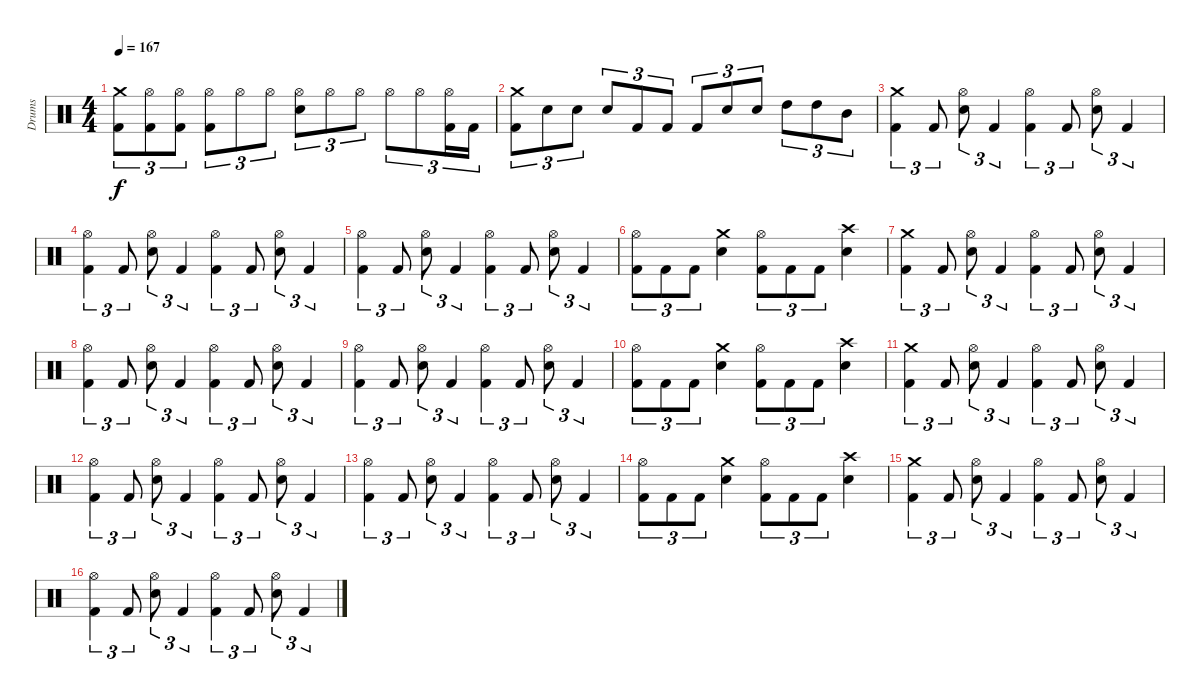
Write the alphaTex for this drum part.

\track ("Drums" "Drums") {instrument percussion}
\staff {score}
\articulation defaults
\ts (4 4)
\tempo 167
\clef neutral
\ks c
("Kick (hit) 2" "Crash medium (hit)").8{tu (3 2) dy f} ("Kick (hit) 2" "Hi-Hat (open)").8{tu (3 2)} ("Kick (hit) 2" "Hi-Hat (open)").8{tu (3 2)} ("Kick (hit) 2" "Hi-Hat (open)").8{tu (3 2)} "Hi-Hat (open)".8{tu (3 2)} "Hi-Hat (open)".8{tu (3 2)} ("Electric Snare (hit)" "Hi-Hat (open)").8{tu (3 2)} "Hi-Hat (open)".8{tu (3 2)} "Hi-Hat (open)".8{tu (3 2)} "Hi-Hat (open)".8{tu (3 2)} "Hi-Hat (open)".8{tu (3 2)} ("Kick (hit) 2" "Hi-Hat (open)").16{tu (3 2)} "Kick (hit) 2".16{tu (3 2)} |
("Kick (hit) 2" "Crash medium (hit)").8{tu (3 2)} "Electric Snare (hit)".8{tu (3 2)} "Electric Snare (hit)".8{tu (3 2)} "Electric Snare (hit)".8{tu (3 2)} "Kick (hit) 2".8{tu (3 2)} "Kick (hit) 2".8{tu (3 2)} "Kick (hit) 2".8{tu (3 2)} "Electric Snare (hit)".8{tu (3 2)} "Electric Snare (hit)".8{tu (3 2)} "High Tom (hit)".8{tu (3 2)} "High Tom (hit)".8{tu (3 2)} "Mid Tom (hit)".8{tu (3 2)} |
("Kick (hit) 2" "Crash medium (hit)").4{tu (3 2)} "Kick (hit) 2".8{tu (3 2)} ("Electric Snare (hit)" "Hi-Hat (open)").8{tu (3 2)} "Kick (hit) 2".4{tu (3 2)} ("Kick (hit) 2" "Hi-Hat (open)").4{tu (3 2)} "Kick (hit) 2".8{tu (3 2)} ("Electric Snare (hit)" "Hi-Hat (open)").8{tu (3 2)} "Kick (hit) 2".4{tu (3 2)} |
("Kick (hit) 2" "Hi-Hat (open)").4{tu (3 2)} "Kick (hit) 2".8{tu (3 2)} ("Electric Snare (hit)" "Hi-Hat (open)").8{tu (3 2)} "Kick (hit) 2".4{tu (3 2)} ("Kick (hit) 2" "Hi-Hat (open)").4{tu (3 2)} "Kick (hit) 2".8{tu (3 2)} ("Electric Snare (hit)" "Hi-Hat (open)").8{tu (3 2)} "Kick (hit) 2".4{tu (3 2)} |
("Kick (hit) 2" "Hi-Hat (open)").4{tu (3 2)} "Kick (hit) 2".8{tu (3 2)} ("Electric Snare (hit)" "Hi-Hat (open)").8{tu (3 2)} "Kick (hit) 2".4{tu (3 2)} ("Kick (hit) 2" "Hi-Hat (open)").4{tu (3 2)} "Kick (hit) 2".8{tu (3 2)} ("Electric Snare (hit)" "Hi-Hat (open)").8{tu (3 2)} "Kick (hit) 2".4{tu (3 2)} |
("Kick (hit) 2" "Hi-Hat (open)").8{tu (3 2)} "Kick (hit) 2".8{tu (3 2)} "Kick (hit) 2".8{tu (3 2)} ("Electric Snare (hit)" "Crash medium (hit)").4 ("Kick (hit) 2" "Hi-Hat (open)").8{tu (3 2)} "Kick (hit) 2".8{tu (3 2)} "Kick (hit) 2".8{tu (3 2)} ("Electric Snare (hit)" "Crash high (hit)").4 |
("Kick (hit) 2" "Crash medium (hit)").4{tu (3 2)} "Kick (hit) 2".8{tu (3 2)} ("Electric Snare (hit)" "Hi-Hat (open)").8{tu (3 2)} "Kick (hit) 2".4{tu (3 2)} ("Kick (hit) 2" "Hi-Hat (open)").4{tu (3 2)} "Kick (hit) 2".8{tu (3 2)} ("Electric Snare (hit)" "Hi-Hat (open)").8{tu (3 2)} "Kick (hit) 2".4{tu (3 2)} |
("Kick (hit) 2" "Hi-Hat (open)").4{tu (3 2)} "Kick (hit) 2".8{tu (3 2)} ("Electric Snare (hit)" "Hi-Hat (open)").8{tu (3 2)} "Kick (hit) 2".4{tu (3 2)} ("Kick (hit) 2" "Hi-Hat (open)").4{tu (3 2)} "Kick (hit) 2".8{tu (3 2)} ("Electric Snare (hit)" "Hi-Hat (open)").8{tu (3 2)} "Kick (hit) 2".4{tu (3 2)} |
("Kick (hit) 2" "Hi-Hat (open)").4{tu (3 2)} "Kick (hit) 2".8{tu (3 2)} ("Electric Snare (hit)" "Hi-Hat (open)").8{tu (3 2)} "Kick (hit) 2".4{tu (3 2)} ("Kick (hit) 2" "Hi-Hat (open)").4{tu (3 2)} "Kick (hit) 2".8{tu (3 2)} ("Electric Snare (hit)" "Hi-Hat (open)").8{tu (3 2)} "Kick (hit) 2".4{tu (3 2)} |
("Kick (hit) 2" "Hi-Hat (open)").8{tu (3 2)} "Kick (hit) 2".8{tu (3 2)} "Kick (hit) 2".8{tu (3 2)} ("Electric Snare (hit)" "Crash medium (hit)").4 ("Kick (hit) 2" "Hi-Hat (open)").8{tu (3 2)} "Kick (hit) 2".8{tu (3 2)} "Kick (hit) 2".8{tu (3 2)} ("Electric Snare (hit)" "Crash high (hit)").4 |
("Kick (hit) 2" "Crash medium (hit)").4{tu (3 2)} "Kick (hit) 2".8{tu (3 2)} ("Electric Snare (hit)" "Hi-Hat (open)").8{tu (3 2)} "Kick (hit) 2".4{tu (3 2)} ("Kick (hit) 2" "Hi-Hat (open)").4{tu (3 2)} "Kick (hit) 2".8{tu (3 2)} ("Electric Snare (hit)" "Hi-Hat (open)").8{tu (3 2)} "Kick (hit) 2".4{tu (3 2)} |
("Kick (hit) 2" "Hi-Hat (open)").4{tu (3 2)} "Kick (hit) 2".8{tu (3 2)} ("Electric Snare (hit)" "Hi-Hat (open)").8{tu (3 2)} "Kick (hit) 2".4{tu (3 2)} ("Kick (hit) 2" "Hi-Hat (open)").4{tu (3 2)} "Kick (hit) 2".8{tu (3 2)} ("Electric Snare (hit)" "Hi-Hat (open)").8{tu (3 2)} "Kick (hit) 2".4{tu (3 2)} |
("Kick (hit) 2" "Hi-Hat (open)").4{tu (3 2)} "Kick (hit) 2".8{tu (3 2)} ("Electric Snare (hit)" "Hi-Hat (open)").8{tu (3 2)} "Kick (hit) 2".4{tu (3 2)} ("Kick (hit) 2" "Hi-Hat (open)").4{tu (3 2)} "Kick (hit) 2".8{tu (3 2)} ("Electric Snare (hit)" "Hi-Hat (open)").8{tu (3 2)} "Kick (hit) 2".4{tu (3 2)} |
("Kick (hit) 2" "Hi-Hat (open)").8{tu (3 2)} "Kick (hit) 2".8{tu (3 2)} "Kick (hit) 2".8{tu (3 2)} ("Electric Snare (hit)" "Crash medium (hit)").4 ("Kick (hit) 2" "Hi-Hat (open)").8{tu (3 2)} "Kick (hit) 2".8{tu (3 2)} "Kick (hit) 2".8{tu (3 2)} ("Electric Snare (hit)" "Crash high (hit)").4 |
("Kick (hit) 2" "Crash medium (hit)").4{tu (3 2)} "Kick (hit) 2".8{tu (3 2)} ("Electric Snare (hit)" "Hi-Hat (open)").8{tu (3 2)} "Kick (hit) 2".4{tu (3 2)} ("Kick (hit) 2" "Hi-Hat (open)").4{tu (3 2)} "Kick (hit) 2".8{tu (3 2)} ("Electric Snare (hit)" "Hi-Hat (open)").8{tu (3 2)} "Kick (hit) 2".4{tu (3 2)} |
("Kick (hit) 2" "Hi-Hat (open)").4{tu (3 2)} "Kick (hit) 2".8{tu (3 2)} ("Electric Snare (hit)" "Hi-Hat (open)").8{tu (3 2)} "Kick (hit) 2".4{tu (3 2)} ("Kick (hit) 2" "Hi-Hat (open)").4{tu (3 2)} "Kick (hit) 2".8{tu (3 2)} ("Electric Snare (hit)" "Hi-Hat (open)").8{tu (3 2)} "Kick (hit) 2".4{tu (3 2)}
